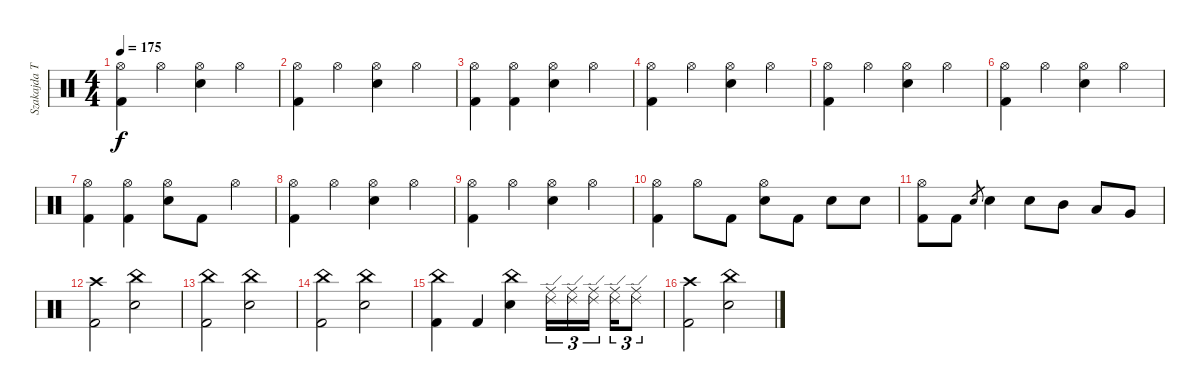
\track ("Szakajda Tibi" "Szakajda T") {instrument percussion}
\staff {score}
\articulation defaults
\ts (4 4)
\tempo 175
\clef neutral
\ks c
("Hi-Hat (open)" "Kick (hit) 2").4{dy f} "Hi-Hat (open)".4 ("Hi-Hat (open)" "Snare (hit) 2").4 "Hi-Hat (open)".4 |
("Hi-Hat (open)" "Kick (hit) 2").4 "Hi-Hat (open)".4 ("Hi-Hat (open)" "Snare (hit) 2").4 "Hi-Hat (open)".4 |
("Hi-Hat (open)" "Kick (hit) 2").4 ("Hi-Hat (open)" "Kick (hit) 2").4 ("Hi-Hat (open)" "Snare (hit) 2").4 "Hi-Hat (open)".4 |
("Hi-Hat (open)" "Kick (hit) 2").4 "Hi-Hat (open)".4 ("Hi-Hat (open)" "Snare (hit) 2").4 "Hi-Hat (open)".4 |
("Hi-Hat (open)" "Kick (hit) 2").4 "Hi-Hat (open)".4 ("Hi-Hat (open)" "Snare (hit) 2").4 "Hi-Hat (open)".4 |
("Hi-Hat (open)" "Kick (hit) 2").4 "Hi-Hat (open)".4 ("Hi-Hat (open)" "Snare (hit) 2").4 "Hi-Hat (open)".4 |
("Hi-Hat (open)" "Kick (hit) 2").4 ("Hi-Hat (open)" "Kick (hit) 2").4 ("Hi-Hat (open)" "Snare (hit) 2").8 "Kick (hit) 2".8 "Hi-Hat (open)".4 |
("Hi-Hat (open)" "Kick (hit) 2").4 "Hi-Hat (open)".4 ("Hi-Hat (open)" "Snare (hit) 2").4 "Hi-Hat (open)".4 |
("Hi-Hat (open)" "Kick (hit) 2").4 "Hi-Hat (open)".4 ("Hi-Hat (open)" "Snare (hit) 2").4 "Hi-Hat (open)".4 |
("Hi-Hat (open)" "Kick (hit) 2").4 "Hi-Hat (open)".8 "Kick (hit) 2".8 ("Hi-Hat (open)" "Snare (hit) 2").8 "Kick (hit) 2".8 "Snare (hit) 2".8 "Snare (hit) 2".8 |
("Hi-Hat (open)" "Kick (hit) 2").8 "Kick (hit) 2".8 "Snare (hit) 2".8{gr} "Snare (hit) 2".4 "Snare (hit) 2".8 "Mid Tom (hit)".8 "Low Tom (hit)".8 "Very Low Tom (hit)".8 |
("Crash high (hit)" "Kick (hit) 2").2 ("China (hit)" "Snare (hit) 2").2 |
("China (hit)" "Kick (hit) 2").2 ("China (hit)" "Snare (hit) 2").2 |
("China (hit)" "Kick (hit) 2").2 ("China (hit)" "Snare (hit) 2").2 |
("China (hit)" "Kick (hit) 2").4 "Kick (hit) 2".4 ("China (hit)" "Snare (hit) 2").4 ("Ride (middle)" "Ride (edge) 2").16{tu (3 2)} ("Ride (middle)" "Ride (edge) 2").16{tu (3 2)} ("Ride (middle)" "Ride (edge) 2").16{tu (3 2) beam splitsecondary} ("Ride (middle)" "Ride (edge) 2").16{tu (3 2)} ("Ride (middle)" "Ride (edge) 2").8{tu (3 2)} |
("Crash high (hit)" "Kick (hit) 2").2 ("China (hit)" "Snare (hit) 2").2
